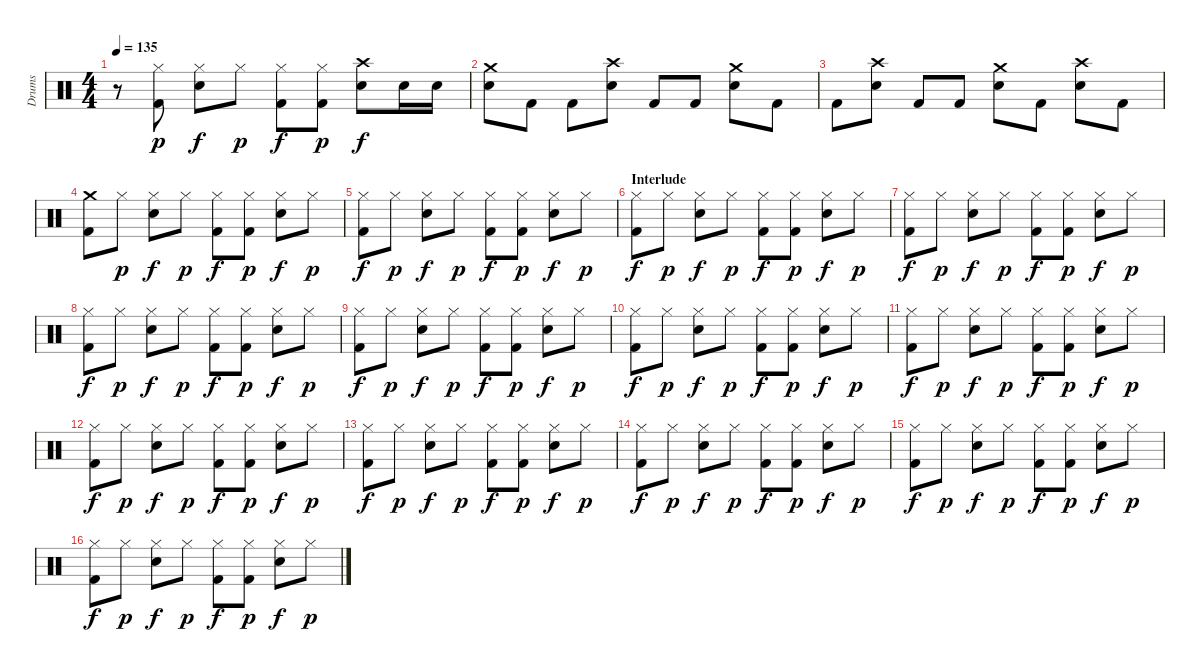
\track ("Drums" "Drums") {instrument percussion}
\staff {score}
\articulation defaults
\ts (4 4)
\tempo 135
\clef neutral
\ks c
r.8{dy f} ("Hi-Hat (closed)" "Kick (hit) 2").8{dy p} ("Hi-Hat (closed)" "Snare (hit) 2").8{dy f} "Hi-Hat (closed)".8{dy p} ("Hi-Hat (closed)" "Kick (hit) 2").8{dy f} ("Hi-Hat (closed)" "Kick (hit) 2").8{dy p} ("Crash high (hit)" "Snare (hit) 2").8{dy f} "Snare (hit) 2".16 "Snare (hit) 2".16 |
("Crash medium (hit)" "Snare (hit) 2").8 "Kick (hit) 2".8 "Kick (hit) 2".8 ("Crash high (hit)" "Snare (hit) 2").8 "Kick (hit) 2".8 "Kick (hit) 2".8 ("Crash medium (hit)" "Snare (hit) 2").8 "Kick (hit) 2".8 |
"Kick (hit) 2".8 ("Crash high (hit)" "Snare (hit) 2").8 "Kick (hit) 2".8 "Kick (hit) 2".8 ("Crash medium (hit)" "Snare (hit) 2").8 "Kick (hit) 2".8 ("Crash high (hit)" "Snare (hit) 2").8 "Kick (hit) 2".8 |
("Crash medium (hit)" "Kick (hit) 2").8 "Hi-Hat (closed)".8{dy p} ("Hi-Hat (closed)" "Snare (hit) 2").8{dy f} "Hi-Hat (closed)".8{dy p} ("Hi-Hat (closed)" "Kick (hit) 2").8{dy f} ("Hi-Hat (closed)" "Kick (hit) 2").8{dy p} ("Hi-Hat (closed)" "Snare (hit) 2").8{dy f} "Hi-Hat (closed)".8{dy p} |
("Hi-Hat (closed)" "Kick (hit) 2").8{dy f} "Hi-Hat (closed)".8{dy p} ("Hi-Hat (closed)" "Snare (hit) 2").8{dy f} "Hi-Hat (closed)".8{dy p} ("Hi-Hat (closed)" "Kick (hit) 2").8{dy f} ("Hi-Hat (closed)" "Kick (hit) 2").8{dy p} ("Hi-Hat (closed)" "Snare (hit) 2").8{dy f} "Hi-Hat (closed)".8{dy p} |
\section ("" "Interlude")
("Hi-Hat (closed)" "Kick (hit) 2").8{dy f} "Hi-Hat (closed)".8{dy p} ("Hi-Hat (closed)" "Snare (hit) 2").8{dy f} "Hi-Hat (closed)".8{dy p} ("Hi-Hat (closed)" "Kick (hit) 2").8{dy f} ("Hi-Hat (closed)" "Kick (hit) 2").8{dy p} ("Hi-Hat (closed)" "Snare (hit) 2").8{dy f} "Hi-Hat (closed)".8{dy p} |
("Hi-Hat (closed)" "Kick (hit) 2").8{dy f} "Hi-Hat (closed)".8{dy p} ("Hi-Hat (closed)" "Snare (hit) 2").8{dy f} "Hi-Hat (closed)".8{dy p} ("Hi-Hat (closed)" "Kick (hit) 2").8{dy f} ("Hi-Hat (closed)" "Kick (hit) 2").8{dy p} ("Hi-Hat (closed)" "Snare (hit) 2").8{dy f} "Hi-Hat (closed)".8{dy p} |
("Hi-Hat (closed)" "Kick (hit) 2").8{dy f} "Hi-Hat (closed)".8{dy p} ("Hi-Hat (closed)" "Snare (hit) 2").8{dy f} "Hi-Hat (closed)".8{dy p} ("Hi-Hat (closed)" "Kick (hit) 2").8{dy f} ("Hi-Hat (closed)" "Kick (hit) 2").8{dy p} ("Hi-Hat (closed)" "Snare (hit) 2").8{dy f} "Hi-Hat (closed)".8{dy p} |
("Hi-Hat (closed)" "Kick (hit) 2").8{dy f} "Hi-Hat (closed)".8{dy p} ("Hi-Hat (closed)" "Snare (hit) 2").8{dy f} "Hi-Hat (closed)".8{dy p} ("Hi-Hat (closed)" "Kick (hit) 2").8{dy f} ("Hi-Hat (closed)" "Kick (hit) 2").8{dy p} ("Hi-Hat (closed)" "Snare (hit) 2").8{dy f} "Hi-Hat (closed)".8{dy p} |
("Hi-Hat (closed)" "Kick (hit) 2").8{dy f} "Hi-Hat (closed)".8{dy p} ("Hi-Hat (closed)" "Snare (hit) 2").8{dy f} "Hi-Hat (closed)".8{dy p} ("Hi-Hat (closed)" "Kick (hit) 2").8{dy f} ("Hi-Hat (closed)" "Kick (hit) 2").8{dy p} ("Hi-Hat (closed)" "Snare (hit) 2").8{dy f} "Hi-Hat (closed)".8{dy p} |
("Hi-Hat (closed)" "Kick (hit) 2").8{dy f} "Hi-Hat (closed)".8{dy p} ("Hi-Hat (closed)" "Snare (hit) 2").8{dy f} "Hi-Hat (closed)".8{dy p} ("Hi-Hat (closed)" "Kick (hit) 2").8{dy f} ("Hi-Hat (closed)" "Kick (hit) 2").8{dy p} ("Hi-Hat (closed)" "Snare (hit) 2").8{dy f} "Hi-Hat (closed)".8{dy p} |
("Hi-Hat (closed)" "Kick (hit) 2").8{dy f} "Hi-Hat (closed)".8{dy p} ("Hi-Hat (closed)" "Snare (hit) 2").8{dy f} "Hi-Hat (closed)".8{dy p} ("Hi-Hat (closed)" "Kick (hit) 2").8{dy f} ("Hi-Hat (closed)" "Kick (hit) 2").8{dy p} ("Hi-Hat (closed)" "Snare (hit) 2").8{dy f} "Hi-Hat (closed)".8{dy p} |
("Hi-Hat (closed)" "Kick (hit) 2").8{dy f} "Hi-Hat (closed)".8{dy p} ("Hi-Hat (closed)" "Snare (hit) 2").8{dy f} "Hi-Hat (closed)".8{dy p} ("Hi-Hat (closed)" "Kick (hit) 2").8{dy f} ("Hi-Hat (closed)" "Kick (hit) 2").8{dy p} ("Hi-Hat (closed)" "Snare (hit) 2").8{dy f} "Hi-Hat (closed)".8{dy p} |
("Hi-Hat (closed)" "Kick (hit) 2").8{dy f} "Hi-Hat (closed)".8{dy p} ("Hi-Hat (closed)" "Snare (hit) 2").8{dy f} "Hi-Hat (closed)".8{dy p} ("Hi-Hat (closed)" "Kick (hit) 2").8{dy f} ("Hi-Hat (closed)" "Kick (hit) 2").8{dy p} ("Hi-Hat (closed)" "Snare (hit) 2").8{dy f} "Hi-Hat (closed)".8{dy p} |
("Hi-Hat (closed)" "Kick (hit) 2").8{dy f} "Hi-Hat (closed)".8{dy p} ("Hi-Hat (closed)" "Snare (hit) 2").8{dy f} "Hi-Hat (closed)".8{dy p} ("Hi-Hat (closed)" "Kick (hit) 2").8{dy f} ("Hi-Hat (closed)" "Kick (hit) 2").8{dy p} ("Hi-Hat (closed)" "Snare (hit) 2").8{dy f} "Hi-Hat (closed)".8{dy p} |
("Hi-Hat (closed)" "Kick (hit) 2").8{dy f} "Hi-Hat (closed)".8{dy p} ("Hi-Hat (closed)" "Snare (hit) 2").8{dy f} "Hi-Hat (closed)".8{dy p} ("Hi-Hat (closed)" "Kick (hit) 2").8{dy f} ("Hi-Hat (closed)" "Kick (hit) 2").8{dy p} ("Hi-Hat (closed)" "Snare (hit) 2").8{dy f} "Hi-Hat (closed)".8{dy p}
